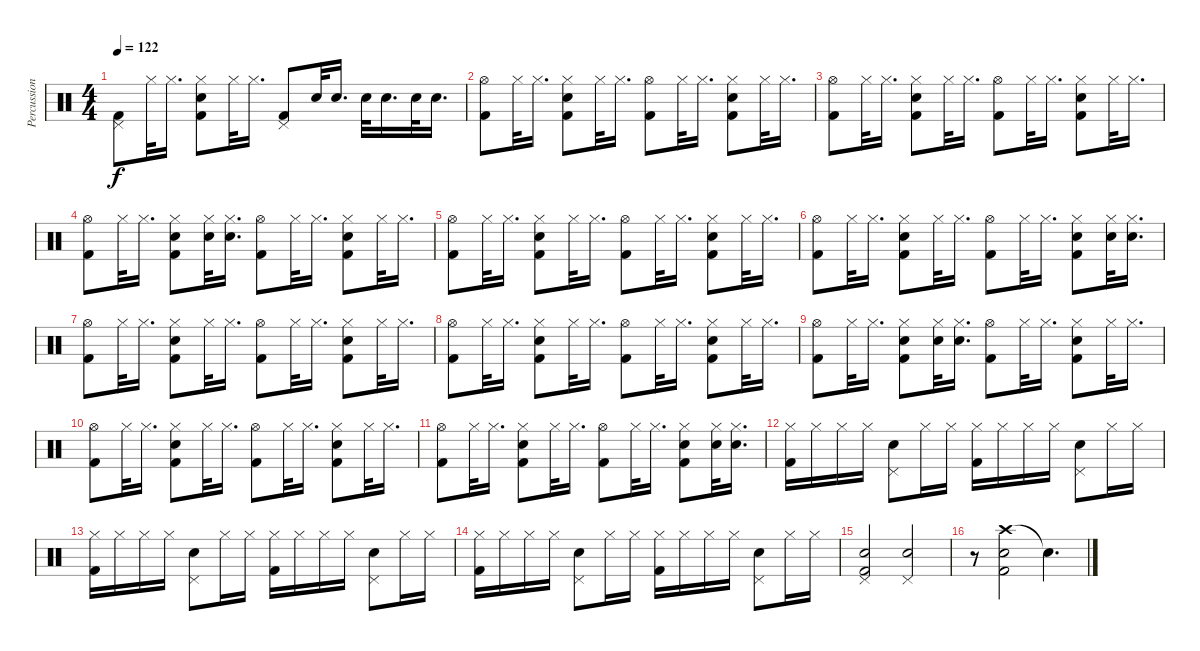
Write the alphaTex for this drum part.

\track ("Percussion" "Percussion") {instrument percussion}
\staff {score}
\articulation defaults
\ts (4 4)
\tempo 122
\clef neutral
\ks c
("Pedal Hi-Hat (hit)" "Kick (hit) 2").8{dy f} "Hi-Hat (closed)".32 "Hi-Hat (closed)".16{d} ("Hi-Hat (closed)" "Snare (hit) 2" "Kick (hit) 2").8 "Hi-Hat (closed)".32 "Hi-Hat (closed)".16{d} ("Pedal Hi-Hat (hit)" "Kick (hit) 2").8 "Snare (hit) 2".32 "Snare (hit) 2".16{d} "Snare (hit) 2".32 "Snare (hit) 2".16{d} "Snare (hit) 2".32 "Snare (hit) 2".16{d} |
("Hi-Hat (open)" "Kick (hit) 2").8 "Hi-Hat (closed)".32 "Hi-Hat (closed)".16{d} ("Hi-Hat (closed)" "Snare (hit) 2" "Kick (hit) 2").8 "Hi-Hat (closed)".32 "Hi-Hat (closed)".16{d} ("Hi-Hat (open)" "Kick (hit) 2").8 "Hi-Hat (closed)".32 "Hi-Hat (closed)".16{d} ("Hi-Hat (closed)" "Snare (hit) 2" "Kick (hit) 2").8 "Hi-Hat (closed)".32 "Hi-Hat (closed)".16{d} |
("Hi-Hat (open)" "Kick (hit) 2").8 "Hi-Hat (closed)".32 "Hi-Hat (closed)".16{d} ("Hi-Hat (closed)" "Snare (hit) 2" "Kick (hit) 2").8 "Hi-Hat (closed)".32 "Hi-Hat (closed)".16{d} ("Hi-Hat (open)" "Kick (hit) 2").8 "Hi-Hat (closed)".32 "Hi-Hat (closed)".16{d} ("Hi-Hat (closed)" "Snare (hit) 2" "Kick (hit) 2").8 "Hi-Hat (closed)".32 "Hi-Hat (closed)".16{d} |
("Hi-Hat (open)" "Kick (hit) 2").8 "Hi-Hat (closed)".32 "Hi-Hat (closed)".16{d} ("Hi-Hat (closed)" "Snare (hit) 2" "Kick (hit) 2").8 ("Hi-Hat (closed)" "Snare (hit) 2").32 ("Hi-Hat (closed)" "Snare (hit) 2").16{d} ("Hi-Hat (open)" "Kick (hit) 2").8 "Hi-Hat (closed)".32 "Hi-Hat (closed)".16{d} ("Hi-Hat (closed)" "Snare (hit) 2" "Kick (hit) 2").8 "Hi-Hat (closed)".32 "Hi-Hat (closed)".16{d} |
("Hi-Hat (open)" "Kick (hit) 2").8 "Hi-Hat (closed)".32 "Hi-Hat (closed)".16{d} ("Hi-Hat (closed)" "Snare (hit) 2" "Kick (hit) 2").8 "Hi-Hat (closed)".32 "Hi-Hat (closed)".16{d} ("Hi-Hat (open)" "Kick (hit) 2").8 "Hi-Hat (closed)".32 "Hi-Hat (closed)".16{d} ("Hi-Hat (closed)" "Snare (hit) 2" "Kick (hit) 2").8 "Hi-Hat (closed)".32 "Hi-Hat (closed)".16{d} |
("Hi-Hat (open)" "Kick (hit) 2").8 "Hi-Hat (closed)".32 "Hi-Hat (closed)".16{d} ("Hi-Hat (closed)" "Snare (hit) 2" "Kick (hit) 2").8 "Hi-Hat (closed)".32 "Hi-Hat (closed)".16{d} ("Hi-Hat (open)" "Kick (hit) 2").8 "Hi-Hat (closed)".32 "Hi-Hat (closed)".16{d} ("Hi-Hat (closed)" "Snare (hit) 2" "Kick (hit) 2").8 ("Hi-Hat (closed)" "Snare (hit) 2").32 ("Hi-Hat (closed)" "Snare (hit) 2").16{d} |
("Hi-Hat (open)" "Kick (hit) 2").8 "Hi-Hat (closed)".32 "Hi-Hat (closed)".16{d} ("Hi-Hat (closed)" "Snare (hit) 2" "Kick (hit) 2").8 "Hi-Hat (closed)".32 "Hi-Hat (closed)".16{d} ("Hi-Hat (open)" "Kick (hit) 2").8 "Hi-Hat (closed)".32 "Hi-Hat (closed)".16{d} ("Hi-Hat (closed)" "Snare (hit) 2" "Kick (hit) 2").8 "Hi-Hat (closed)".32 "Hi-Hat (closed)".16{d} |
("Hi-Hat (open)" "Kick (hit) 2").8 "Hi-Hat (closed)".32 "Hi-Hat (closed)".16{d} ("Hi-Hat (closed)" "Snare (hit) 2" "Kick (hit) 2").8 "Hi-Hat (closed)".32 "Hi-Hat (closed)".16{d} ("Hi-Hat (open)" "Kick (hit) 2").8 "Hi-Hat (closed)".32 "Hi-Hat (closed)".16{d} ("Hi-Hat (closed)" "Snare (hit) 2" "Kick (hit) 2").8 "Hi-Hat (closed)".32 "Hi-Hat (closed)".16{d} |
("Hi-Hat (open)" "Kick (hit) 2").8 "Hi-Hat (closed)".32 "Hi-Hat (closed)".16{d} ("Hi-Hat (closed)" "Snare (hit) 2" "Kick (hit) 2").8 ("Hi-Hat (closed)" "Snare (hit) 2").32 ("Hi-Hat (closed)" "Snare (hit) 2").16{d} ("Hi-Hat (open)" "Kick (hit) 2").8 "Hi-Hat (closed)".32 "Hi-Hat (closed)".16{d} ("Hi-Hat (closed)" "Snare (hit) 2" "Kick (hit) 2").8 "Hi-Hat (closed)".32 "Hi-Hat (closed)".16{d} |
("Hi-Hat (open)" "Kick (hit) 2").8 "Hi-Hat (closed)".32 "Hi-Hat (closed)".16{d} ("Hi-Hat (closed)" "Snare (hit) 2" "Kick (hit) 2").8 "Hi-Hat (closed)".32 "Hi-Hat (closed)".16{d} ("Hi-Hat (open)" "Kick (hit) 2").8 "Hi-Hat (closed)".32 "Hi-Hat (closed)".16{d} ("Hi-Hat (closed)" "Snare (hit) 2" "Kick (hit) 2").8 "Hi-Hat (closed)".32 "Hi-Hat (closed)".16{d} |
("Hi-Hat (open)" "Kick (hit) 2").8 "Hi-Hat (closed)".32 "Hi-Hat (closed)".16{d} ("Hi-Hat (closed)" "Snare (hit) 2" "Kick (hit) 2").8 "Hi-Hat (closed)".32 "Hi-Hat (closed)".16{d} ("Hi-Hat (open)" "Kick (hit) 2").8 "Hi-Hat (closed)".32 "Hi-Hat (closed)".16{d} ("Hi-Hat (closed)" "Snare (hit) 2" "Kick (hit) 2").8 ("Hi-Hat (closed)" "Snare (hit) 2").32 ("Hi-Hat (closed)" "Snare (hit) 2").16{d} |
("Hi-Hat (closed)" "Kick (hit) 2").16 "Hi-Hat (closed)".16 "Hi-Hat (closed)".16 "Hi-Hat (closed)".16 ("Pedal Hi-Hat (hit)" "Snare (hit) 2").8 "Hi-Hat (closed)".16 "Hi-Hat (closed)".16 ("Hi-Hat (closed)" "Kick (hit) 2").16 "Hi-Hat (closed)".16 "Hi-Hat (closed)".16 "Hi-Hat (closed)".16 ("Pedal Hi-Hat (hit)" "Snare (hit) 2").8 "Hi-Hat (closed)".16 "Hi-Hat (closed)".16 |
("Hi-Hat (closed)" "Kick (hit) 2").16 "Hi-Hat (closed)".16 "Hi-Hat (closed)".16 "Hi-Hat (closed)".16 ("Pedal Hi-Hat (hit)" "Snare (hit) 2").8 "Hi-Hat (closed)".16 "Hi-Hat (closed)".16 ("Hi-Hat (closed)" "Kick (hit) 2").16 "Hi-Hat (closed)".16 "Hi-Hat (closed)".16 "Hi-Hat (closed)".16 ("Pedal Hi-Hat (hit)" "Snare (hit) 2").8 "Hi-Hat (closed)".16 "Hi-Hat (closed)".16 |
("Hi-Hat (closed)" "Kick (hit) 2").16 "Hi-Hat (closed)".16 "Hi-Hat (closed)".16 "Hi-Hat (closed)".16 ("Pedal Hi-Hat (hit)" "Snare (hit) 2").8 "Hi-Hat (closed)".16 "Hi-Hat (closed)".16 ("Hi-Hat (closed)" "Kick (hit) 2").16 "Hi-Hat (closed)".16 "Hi-Hat (closed)".16 "Hi-Hat (closed)".16 ("Pedal Hi-Hat (hit)" "Snare (hit) 2").8 "Hi-Hat (closed)".16 "Hi-Hat (closed)".16 |
("Pedal Hi-Hat (hit)" "Snare (hit) 2" "Kick (hit) 2").2 ("Pedal Hi-Hat (hit)" "Snare (hit) 2").2 |
r.8 ("Crash high (hit)" "Snare (hit) 2" "Kick (hit) 2").2 "Snare (hit)"{t}.4{d}
